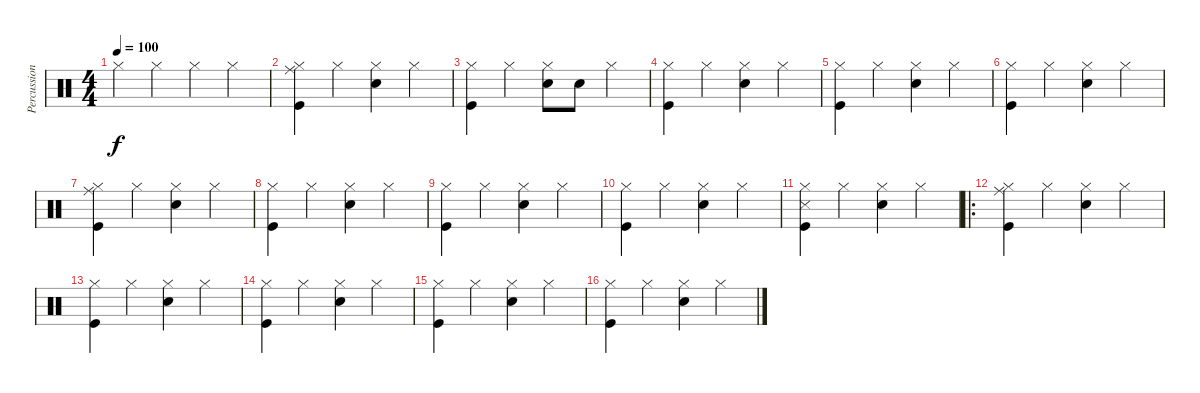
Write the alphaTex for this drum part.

\track ("Percussion" "Percussion") {instrument percussion}
\staff {score}
\articulation defaults
\ts (4 4)
\tempo 100
\clef neutral
\ks c "Hi-Hat (closed)".4{dy f} "Hi-Hat (closed)".4 "Hi-Hat (closed)".4 "Hi-Hat (closed)".4
|
("Hi-Hat (closed)" "Kick (hit)" "Ride (middle)").4 "Hi-Hat (closed)".4 ("Hi-Hat (closed)" "Electric Snare (hit)").4 "Hi-Hat (closed)".4 |
("Hi-Hat (closed)" "Kick (hit)").4 "Hi-Hat (closed)".4 ("Hi-Hat (closed)" "Electric Snare (hit)").8 "Electric Snare (hit)".8 "Hi-Hat (closed)".4 |
("Hi-Hat (closed)" "Kick (hit)").4 "Hi-Hat (closed)".4 ("Hi-Hat (closed)" "Electric Snare (hit)").4 "Hi-Hat (closed)".4 |
("Hi-Hat (closed)" "Kick (hit)").4 "Hi-Hat (closed)".4 ("Hi-Hat (closed)" "Electric Snare (hit)").4 "Hi-Hat (closed)".4 |
("Hi-Hat (closed)" "Kick (hit)").4 "Hi-Hat (closed)".4 ("Hi-Hat (closed)" "Electric Snare (hit)").4 "Hi-Hat (closed)".4 |
("Hi-Hat (closed)" "Kick (hit)" "Ride (middle)").4 "Hi-Hat (closed)".4 ("Hi-Hat (closed)" "Electric Snare (hit)").4 "Hi-Hat (closed)".4 |
("Hi-Hat (closed)" "Kick (hit)").4 "Hi-Hat (closed)".4 ("Hi-Hat (closed)" "Electric Snare (hit)").4 "Hi-Hat (closed)".4 |
("Hi-Hat (closed)" "Kick (hit)").4 "Hi-Hat (closed)".4 ("Hi-Hat (closed)" "Electric Snare (hit)").4 "Hi-Hat (closed)".4 |
("Hi-Hat (closed)" "Kick (hit)").4 "Hi-Hat (closed)".4 ("Hi-Hat (closed)" "Electric Snare (hit)").4 "Hi-Hat (closed)".4 |
("Hi-Hat (closed)" "Kick (hit)" "Snare (side stick) 3").4 "Hi-Hat (closed)".4 ("Hi-Hat (closed)" "Electric Snare (hit)").4 "Hi-Hat (closed)".4 |
\ro
("Hi-Hat (closed)" "Kick (hit)" "Ride (middle)").4 "Hi-Hat (closed)".4 ("Hi-Hat (closed)" "Electric Snare (hit)").4 "Hi-Hat (closed)".4 |
("Hi-Hat (closed)" "Kick (hit)").4 "Hi-Hat (closed)".4 ("Hi-Hat (closed)" "Electric Snare (hit)").4 "Hi-Hat (closed)".4 |
("Hi-Hat (closed)" "Kick (hit)").4 "Hi-Hat (closed)".4 ("Hi-Hat (closed)" "Electric Snare (hit)").4 "Hi-Hat (closed)".4 |
("Hi-Hat (closed)" "Kick (hit)").4 "Hi-Hat (closed)".4 ("Hi-Hat (closed)" "Electric Snare (hit)").4 "Hi-Hat (closed)".4 |
("Hi-Hat (closed)" "Kick (hit)").4 "Hi-Hat (closed)".4 ("Hi-Hat (closed)" "Electric Snare (hit)").4 "Hi-Hat (closed)".4
